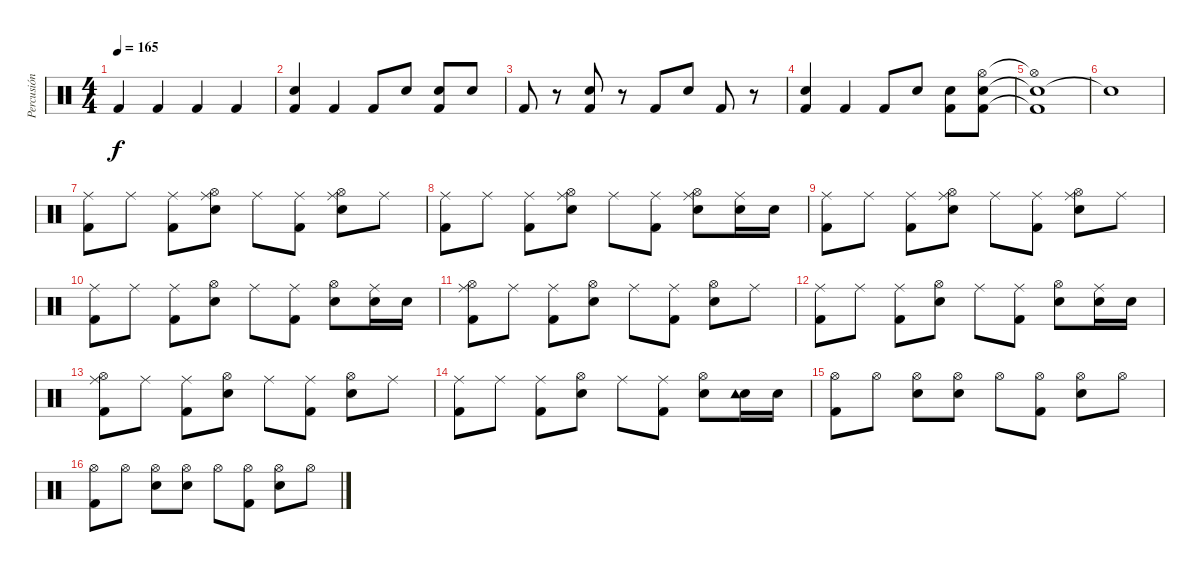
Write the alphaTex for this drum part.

\track ("Percusión" "Percusión") {instrument percussion}
\staff {score}
\articulation defaults
\ts (4 4)
\tempo 165
\clef neutral
\ks c "Kick (hit) 2".4{dy f} "Kick (hit) 2".4 "Kick (hit) 2".4 "Kick (hit) 2".4
|
("Snare (hit) 2" "Kick (hit) 2").4 "Kick (hit) 2".4 "Kick (hit) 2".8 "Snare (hit) 2".8 ("Snare (hit) 2" "Kick (hit) 2").8 "Snare (hit) 2".8 |
"Kick (hit) 2".8 r.8 ("Snare (hit) 2" "Kick (hit) 2").8 r.8 "Kick (hit) 2".8 "Snare (hit) 2".8 "Kick (hit) 2".8 r.8 |
("Snare (hit) 2" "Kick (hit) 2").4 "Kick (hit) 2".4 "Kick (hit) 2".8 "Snare (hit) 2".8 ("Snare (hit) 2" "Kick (hit) 2").8 ("Snare (hit) 2" "Kick (hit) 2" "Hi-Hat (open)").8 |
("Snare (hit) 2"{t} "Kick (hit) 2"{t} "Hi-Hat (open)"{t}).1 |
"Snare (hit)"{t}.1 |
("Kick (hit) 2" "Ride (middle)").8 "Ride (middle)".8 ("Kick (hit) 2" "Ride (middle)").8 ("Snare (hit) 2" "Ride (middle)" "Hi-Hat (open)").8 "Ride (middle)".8 ("Kick (hit) 2" "Ride (middle)").8 ("Snare (hit) 2" "Ride (middle)" "Hi-Hat (open)").8 "Ride (middle)".8 |
("Kick (hit) 2" "Ride (middle)").8 "Ride (middle)".8 ("Kick (hit) 2" "Ride (middle)").8 ("Snare (hit) 2" "Ride (middle)" "Hi-Hat (open)").8 "Ride (middle)".8 ("Kick (hit) 2" "Ride (middle)").8 ("Snare (hit) 2" "Ride (middle)" "Hi-Hat (open)").8 ("Snare (hit) 2" "Ride (middle)").16 "Snare (hit) 2".16 |
("Kick (hit) 2" "Ride (middle)").8 "Ride (middle)".8 ("Kick (hit) 2" "Ride (middle)").8 ("Snare (hit) 2" "Ride (middle)" "Hi-Hat (open)").8 "Ride (middle)".8 ("Kick (hit) 2" "Ride (middle)").8 ("Snare (hit) 2" "Ride (middle)" "Hi-Hat (open)").8 "Ride (middle)".8 |
("Kick (hit) 2" "Ride (middle)").8 "Ride (middle)".8 ("Kick (hit) 2" "Ride (middle)").8 ("Snare (hit) 2" "Hi-Hat (open)").8 "Ride (middle)".8 ("Kick (hit) 2" "Ride (middle)").8 ("Snare (hit) 2" "Hi-Hat (open)").8 ("Snare (hit) 2" "Ride (middle)").16 "Snare (hit) 2".16 |
("Kick (hit) 2" "Ride (middle)" "Hi-Hat (open)").8 "Ride (middle)".8 ("Kick (hit) 2" "Ride (middle)").8 ("Snare (hit) 2" "Hi-Hat (open)").8 "Ride (middle)".8 ("Kick (hit) 2" "Ride (middle)").8 ("Snare (hit) 2" "Hi-Hat (open)").8 "Ride (middle)".8 |
("Kick (hit) 2" "Ride (middle)").8 "Ride (middle)".8 ("Kick (hit) 2" "Ride (middle)").8 ("Snare (hit) 2" "Hi-Hat (open)").8 "Ride (middle)".8 ("Kick (hit) 2" "Ride (middle)").8 ("Snare (hit) 2" "Hi-Hat (open)").8 ("Snare (hit) 2" "Ride (middle)").16 "Snare (hit) 2".16 |
("Kick (hit) 2" "Ride (middle)" "Hi-Hat (open)").8 "Ride (middle)".8 ("Kick (hit) 2" "Ride (middle)").8 ("Snare (hit) 2" "Hi-Hat (open)").8 "Ride (middle)".8 ("Kick (hit) 2" "Ride (middle)").8 ("Snare (hit) 2" "Hi-Hat (open)").8 "Ride (middle)".8 |
("Kick (hit) 2" "Ride (middle)").8 "Ride (middle)".8 ("Kick (hit) 2" "Ride (middle)").8 ("Snare (hit) 2" "Hi-Hat (open)").8 "Ride (middle)".8 ("Kick (hit) 2" "Ride (middle)").8 ("Snare (hit) 2" "Hi-Hat (open)").8 ("Snare (hit) 2" "Tambourine (hit)").16 "Snare (hit) 2".16 |
("Kick (hit) 2" "Hi-Hat (open)").8 "Hi-Hat (open)".8 ("Snare (hit) 2" "Hi-Hat (open)").8 ("Snare (hit) 2" "Hi-Hat (open)").8 "Hi-Hat (open)".8 ("Kick (hit) 2" "Hi-Hat (open)").8 ("Snare (hit) 2" "Hi-Hat (open)").8 "Hi-Hat (open)".8 |
("Kick (hit) 2" "Hi-Hat (open)").8 "Hi-Hat (open)".8 ("Snare (hit) 2" "Hi-Hat (open)").8 ("Snare (hit) 2" "Hi-Hat (open)").8 "Hi-Hat (open)".8 ("Kick (hit) 2" "Hi-Hat (open)").8 ("Snare (hit) 2" "Hi-Hat (open)").8 "Hi-Hat (open)".8
